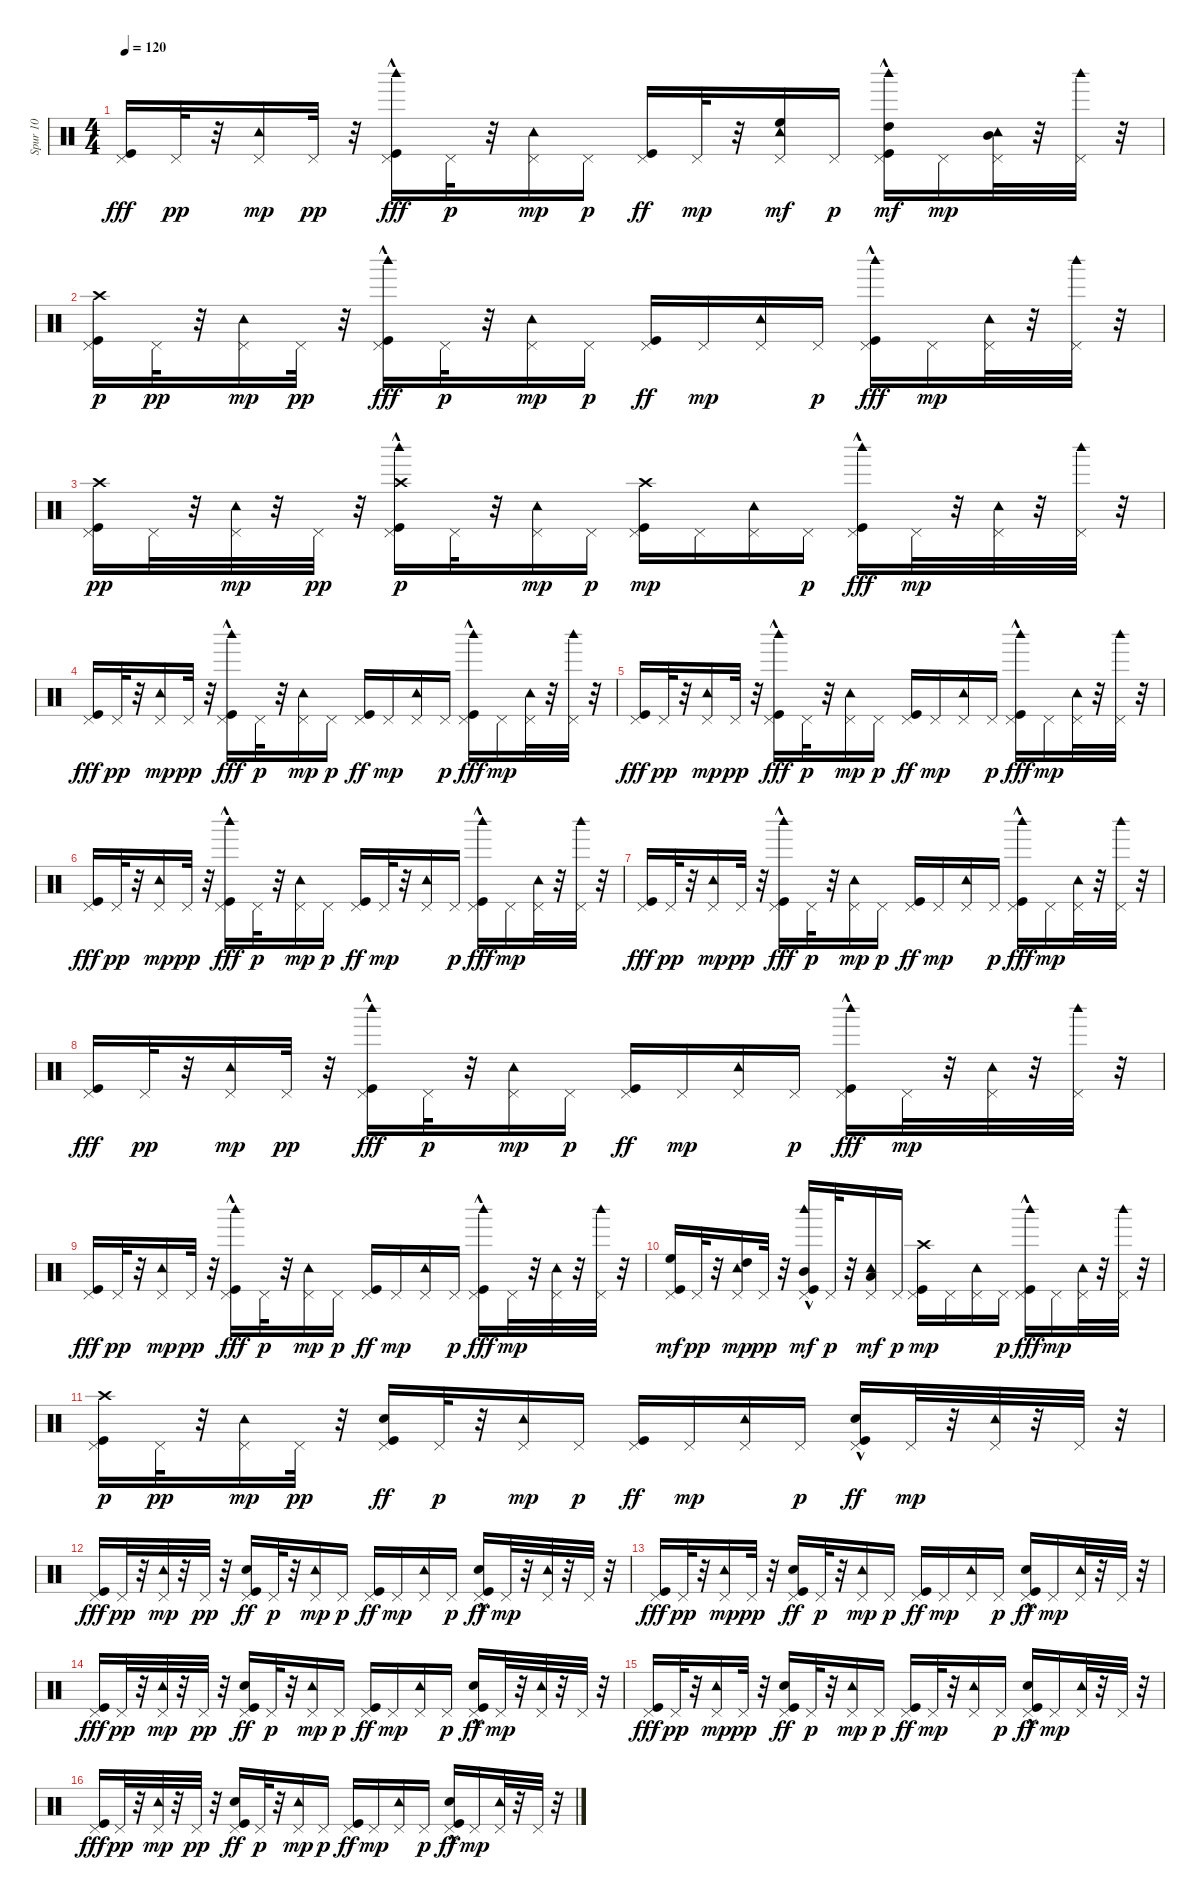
\track ("Spur 10" "Spur 10") {instrument percussion}
\staff {score}
\articulation defaults
\ts (4 4)
\tempo 120
\clef neutral
\ks c
("Pedal Hi-Hat (hit)" "Kick (hit)").16{dy fff} "Pedal Hi-Hat (hit)".32{dy pp} r.32 ("Pedal Hi-Hat (hit)" "Tambourine (hit)").16{dy mp} "Pedal Hi-Hat (hit)".32{dy pp} r.32 ("Kick (hit)" "Pedal Hi-Hat (hit)" "Woodblock high (hit)"{hac}).16{dy fff} "Pedal Hi-Hat (hit)".32{dy p} r.32 ("Pedal Hi-Hat (hit)" "Tambourine (hit)").16{dy mp} "Pedal Hi-Hat (hit)".16{dy p} ("Kick (hit)" "Pedal Hi-Hat (hit)").16{dy ff} "Pedal Hi-Hat (hit)".32{dy mp} r.32 ("Pedal Hi-Hat (hit)" "Tambourine (hit)" "High Floor Tom (hit)").16{dy mf} "Pedal Hi-Hat (hit)".16{dy p} ("Kick (hit)"{hac} "Pedal Hi-Hat (hit)" "Woodblock high (hit)" "High Tom (hit)").16{dy mf} "Pedal Hi-Hat (hit)".16{dy mp} ("Pedal Hi-Hat (hit)" "Tambourine (hit)" "Mid Tom (hit)").32 r.32 ("Pedal Hi-Hat (hit)" "Woodblock high (hit)").32 r.32 |
("Pedal Hi-Hat (hit)" "Kick (hit)" "Crash high (hit)").16{dy p} "Pedal Hi-Hat (hit)".32{dy pp} r.32 ("Pedal Hi-Hat (hit)" "Tambourine (hit)").16{dy mp} "Pedal Hi-Hat (hit)".32{dy pp} r.32 ("Kick (hit)" "Pedal Hi-Hat (hit)" "Woodblock high (hit)"{hac}).16{dy fff} "Pedal Hi-Hat (hit)".32{dy p} r.32 ("Pedal Hi-Hat (hit)" "Tambourine (hit)").16{dy mp} "Pedal Hi-Hat (hit)".16{dy p} ("Kick (hit)" "Pedal Hi-Hat (hit)").16{dy ff} "Pedal Hi-Hat (hit)".16{dy mp} ("Pedal Hi-Hat (hit)" "Tambourine (hit)").16 "Pedal Hi-Hat (hit)".16{dy p} ("Kick (hit)"{hac} "Pedal Hi-Hat (hit)" "Woodblock high (hit)").16{dy fff} "Pedal Hi-Hat (hit)".16{dy mp} ("Pedal Hi-Hat (hit)" "Tambourine (hit)").32 r.32 ("Pedal Hi-Hat (hit)" "Woodblock high (hit)").32 r.32 |
("Pedal Hi-Hat (hit)" "Kick (hit)" "Crash high (hit)").16{dy pp} "Pedal Hi-Hat (hit)".32 r.32 ("Pedal Hi-Hat (hit)" "Tambourine (hit)").32{dy mp} r.32 "Pedal Hi-Hat (hit)".32{dy pp} r.32 ("Kick (hit)" "Pedal Hi-Hat (hit)" "Woodblock high (hit)"{hac} "Crash high (hit)").16{dy p} "Pedal Hi-Hat (hit)".32 r.32 ("Pedal Hi-Hat (hit)" "Tambourine (hit)").16{dy mp} "Pedal Hi-Hat (hit)".16{dy p} ("Kick (hit)" "Pedal Hi-Hat (hit)" "Crash high (hit)").16{dy mp} "Pedal Hi-Hat (hit)".16 ("Pedal Hi-Hat (hit)" "Tambourine (hit)").16 "Pedal Hi-Hat (hit)".16{dy p} ("Kick (hit)"{hac} "Pedal Hi-Hat (hit)" "Woodblock high (hit)").16{dy fff} "Pedal Hi-Hat (hit)".32{dy mp} r.32 ("Pedal Hi-Hat (hit)" "Tambourine (hit)").32 r.32 ("Pedal Hi-Hat (hit)" "Woodblock high (hit)").32 r.32 |
("Pedal Hi-Hat (hit)" "Kick (hit)").16{dy fff} "Pedal Hi-Hat (hit)".32{dy pp} r.32 ("Pedal Hi-Hat (hit)" "Tambourine (hit)").16{dy mp} "Pedal Hi-Hat (hit)".32{dy pp} r.32 ("Kick (hit)" "Pedal Hi-Hat (hit)" "Woodblock high (hit)"{hac}).16{dy fff} "Pedal Hi-Hat (hit)".32{dy p} r.32 ("Pedal Hi-Hat (hit)" "Tambourine (hit)").16{dy mp} "Pedal Hi-Hat (hit)".16{dy p} ("Kick (hit)" "Pedal Hi-Hat (hit)").16{dy ff} "Pedal Hi-Hat (hit)".16{dy mp} ("Pedal Hi-Hat (hit)" "Tambourine (hit)").16 "Pedal Hi-Hat (hit)".16{dy p} ("Kick (hit)"{hac} "Pedal Hi-Hat (hit)" "Woodblock high (hit)").16{dy fff} "Pedal Hi-Hat (hit)".16{dy mp} ("Pedal Hi-Hat (hit)" "Tambourine (hit)").32 r.32 ("Pedal Hi-Hat (hit)" "Woodblock high (hit)").32 r.32 |
("Pedal Hi-Hat (hit)" "Kick (hit)").16{dy fff} "Pedal Hi-Hat (hit)".32{dy pp} r.32 ("Pedal Hi-Hat (hit)" "Tambourine (hit)").16{dy mp} "Pedal Hi-Hat (hit)".32{dy pp} r.32 ("Kick (hit)" "Pedal Hi-Hat (hit)" "Woodblock high (hit)"{hac}).16{dy fff} "Pedal Hi-Hat (hit)".32{dy p} r.32 ("Pedal Hi-Hat (hit)" "Tambourine (hit)").16{dy mp} "Pedal Hi-Hat (hit)".16{dy p} ("Kick (hit)" "Pedal Hi-Hat (hit)").16{dy ff} "Pedal Hi-Hat (hit)".16{dy mp} ("Pedal Hi-Hat (hit)" "Tambourine (hit)").16 "Pedal Hi-Hat (hit)".16{dy p} ("Kick (hit)"{hac} "Pedal Hi-Hat (hit)" "Woodblock high (hit)").16{dy fff} "Pedal Hi-Hat (hit)".16{dy mp} ("Pedal Hi-Hat (hit)" "Tambourine (hit)").32 r.32 ("Pedal Hi-Hat (hit)" "Woodblock high (hit)").32 r.32 |
("Pedal Hi-Hat (hit)" "Kick (hit)").16{dy fff} "Pedal Hi-Hat (hit)".32{dy pp} r.32 ("Pedal Hi-Hat (hit)" "Tambourine (hit)").16{dy mp} "Pedal Hi-Hat (hit)".32{dy pp} r.32 ("Kick (hit)" "Pedal Hi-Hat (hit)" "Woodblock high (hit)"{hac}).16{dy fff} "Pedal Hi-Hat (hit)".32{dy p} r.32 ("Pedal Hi-Hat (hit)" "Tambourine (hit)").16{dy mp} "Pedal Hi-Hat (hit)".16{dy p} ("Kick (hit)" "Pedal Hi-Hat (hit)").16{dy ff} "Pedal Hi-Hat (hit)".32{dy mp} r.32 ("Pedal Hi-Hat (hit)" "Tambourine (hit)").16 "Pedal Hi-Hat (hit)".16{dy p} ("Kick (hit)"{hac} "Pedal Hi-Hat (hit)" "Woodblock high (hit)").16{dy fff} "Pedal Hi-Hat (hit)".16{dy mp} ("Pedal Hi-Hat (hit)" "Tambourine (hit)").32 r.32 ("Pedal Hi-Hat (hit)" "Woodblock high (hit)").32 r.32 |
("Pedal Hi-Hat (hit)" "Kick (hit)").16{dy fff} "Pedal Hi-Hat (hit)".32{dy pp} r.32 ("Pedal Hi-Hat (hit)" "Tambourine (hit)").16{dy mp} "Pedal Hi-Hat (hit)".32{dy pp} r.32 ("Kick (hit)" "Pedal Hi-Hat (hit)" "Woodblock high (hit)"{hac}).16{dy fff} "Pedal Hi-Hat (hit)".32{dy p} r.32 ("Pedal Hi-Hat (hit)" "Tambourine (hit)").16{dy mp} "Pedal Hi-Hat (hit)".16{dy p} ("Kick (hit)" "Pedal Hi-Hat (hit)").16{dy ff} "Pedal Hi-Hat (hit)".16{dy mp} ("Pedal Hi-Hat (hit)" "Tambourine (hit)").16 "Pedal Hi-Hat (hit)".16{dy p} ("Kick (hit)"{hac} "Pedal Hi-Hat (hit)" "Woodblock high (hit)").16{dy fff} "Pedal Hi-Hat (hit)".16{dy mp} ("Pedal Hi-Hat (hit)" "Tambourine (hit)").32 r.32 ("Pedal Hi-Hat (hit)" "Woodblock high (hit)").32 r.32 |
("Pedal Hi-Hat (hit)" "Kick (hit)").16{dy fff} "Pedal Hi-Hat (hit)".32{dy pp} r.32 ("Pedal Hi-Hat (hit)" "Tambourine (hit)").16{dy mp} "Pedal Hi-Hat (hit)".32{dy pp} r.32 ("Kick (hit)" "Pedal Hi-Hat (hit)" "Woodblock high (hit)"{hac}).16{dy fff} "Pedal Hi-Hat (hit)".32{dy p} r.32 ("Pedal Hi-Hat (hit)" "Tambourine (hit)").16{dy mp} "Pedal Hi-Hat (hit)".16{dy p} ("Kick (hit)" "Pedal Hi-Hat (hit)").16{dy ff} "Pedal Hi-Hat (hit)".16{dy mp} ("Pedal Hi-Hat (hit)" "Tambourine (hit)").16 "Pedal Hi-Hat (hit)".16{dy p} ("Kick (hit)"{hac} "Pedal Hi-Hat (hit)" "Woodblock high (hit)").16{dy fff} "Pedal Hi-Hat (hit)".32{dy mp} r.32 ("Pedal Hi-Hat (hit)" "Tambourine (hit)").32 r.32 ("Pedal Hi-Hat (hit)" "Woodblock high (hit)").32 r.32 |
("Pedal Hi-Hat (hit)" "Kick (hit)").16{dy fff} "Pedal Hi-Hat (hit)".32{dy pp} r.32 ("Pedal Hi-Hat (hit)" "Tambourine (hit)").16{dy mp} "Pedal Hi-Hat (hit)".32{dy pp} r.32 ("Kick (hit)" "Pedal Hi-Hat (hit)" "Woodblock high (hit)"{hac}).16{dy fff} "Pedal Hi-Hat (hit)".32{dy p} r.32 ("Pedal Hi-Hat (hit)" "Tambourine (hit)").16{dy mp} "Pedal Hi-Hat (hit)".16{dy p} ("Kick (hit)" "Pedal Hi-Hat (hit)").16{dy ff} "Pedal Hi-Hat (hit)".16{dy mp} ("Pedal Hi-Hat (hit)" "Tambourine (hit)").16 "Pedal Hi-Hat (hit)".16{dy p} ("Kick (hit)"{hac} "Pedal Hi-Hat (hit)" "Woodblock high (hit)").16{dy fff} "Pedal Hi-Hat (hit)".32{dy mp} r.32 ("Pedal Hi-Hat (hit)" "Tambourine (hit)").32 r.32 ("Pedal Hi-Hat (hit)" "Woodblock high (hit)").32 r.32 |
("Pedal Hi-Hat (hit)" "Kick (hit)" "High Floor Tom (hit)").16{dy mf} "Pedal Hi-Hat (hit)".32{dy pp} r.32 ("Pedal Hi-Hat (hit)" "Tambourine (hit)" "High Tom (hit)").16{dy mp} "Pedal Hi-Hat (hit)".32{dy pp} r.32 ("Kick (hit)" "Pedal Hi-Hat (hit)" "Woodblock high (hit)"{hac} "Mid Tom (hit)").16{dy mf} "Pedal Hi-Hat (hit)".32{dy p} r.32 ("Pedal Hi-Hat (hit)" "Tambourine (hit)" "Low Tom (hit)").16{dy mf} "Pedal Hi-Hat (hit)".16{dy p} ("Kick (hit)" "Pedal Hi-Hat (hit)" "Crash high (hit)").16{dy mp} "Pedal Hi-Hat (hit)".16 ("Pedal Hi-Hat (hit)" "Tambourine (hit)").16 "Pedal Hi-Hat (hit)".16{dy p} ("Kick (hit)"{hac} "Pedal Hi-Hat (hit)" "Woodblock high (hit)").16{dy fff} "Pedal Hi-Hat (hit)".16{dy mp} ("Pedal Hi-Hat (hit)" "Tambourine (hit)").32 r.32 ("Pedal Hi-Hat (hit)" "Woodblock high (hit)").32 r.32 |
("Pedal Hi-Hat (hit)" "Kick (hit)" "Crash high (hit)").16{dy p} "Pedal Hi-Hat (hit)".32{dy pp} r.32 ("Pedal Hi-Hat (hit)" "Tambourine (hit)").16{dy mp} "Pedal Hi-Hat (hit)".32{dy pp} r.32 ("Kick (hit)" "Pedal Hi-Hat (hit)" "Snare (hit) 2").16{dy ff} "Pedal Hi-Hat (hit)".32{dy p} r.32 ("Pedal Hi-Hat (hit)" "Tambourine (hit)").16{dy mp} "Pedal Hi-Hat (hit)".16{dy p} ("Kick (hit)" "Pedal Hi-Hat (hit)").16{dy ff} "Pedal Hi-Hat (hit)".16{dy mp} ("Pedal Hi-Hat (hit)" "Tambourine (hit)").16 "Pedal Hi-Hat (hit)".16{dy p} ("Kick (hit)"{hac} "Pedal Hi-Hat (hit)" "Snare (hit) 2"{hac}).16{dy ff} "Pedal Hi-Hat (hit)".32{dy mp} r.32 ("Pedal Hi-Hat (hit)" "Tambourine (hit)").32 r.32 "Pedal Hi-Hat (hit)".32 r.32 |
("Pedal Hi-Hat (hit)" "Kick (hit)").16{dy fff} "Pedal Hi-Hat (hit)".32{dy pp} r.32 ("Pedal Hi-Hat (hit)" "Tambourine (hit)").32{dy mp} r.32 "Pedal Hi-Hat (hit)".32{dy pp} r.32 ("Kick (hit)" "Pedal Hi-Hat (hit)" "Snare (hit) 2").16{dy ff} "Pedal Hi-Hat (hit)".32{dy p} r.32 ("Pedal Hi-Hat (hit)" "Tambourine (hit)").16{dy mp} "Pedal Hi-Hat (hit)".16{dy p} ("Kick (hit)" "Pedal Hi-Hat (hit)").16{dy ff} "Pedal Hi-Hat (hit)".16{dy mp} ("Pedal Hi-Hat (hit)" "Tambourine (hit)").16 "Pedal Hi-Hat (hit)".16{dy p} ("Kick (hit)"{hac} "Pedal Hi-Hat (hit)" "Snare (hit) 2"{hac}).16{dy ff} "Pedal Hi-Hat (hit)".32{dy mp} r.32 ("Pedal Hi-Hat (hit)" "Tambourine (hit)").32 r.32 "Pedal Hi-Hat (hit)".32 r.32 |
("Pedal Hi-Hat (hit)" "Kick (hit)").16{dy fff} "Pedal Hi-Hat (hit)".32{dy pp} r.32 ("Pedal Hi-Hat (hit)" "Tambourine (hit)").16{dy mp} "Pedal Hi-Hat (hit)".32{dy pp} r.32 ("Kick (hit)" "Pedal Hi-Hat (hit)" "Snare (hit) 2").16{dy ff} "Pedal Hi-Hat (hit)".32{dy p} r.32 ("Pedal Hi-Hat (hit)" "Tambourine (hit)").16{dy mp} "Pedal Hi-Hat (hit)".16{dy p} ("Kick (hit)" "Pedal Hi-Hat (hit)").16{dy ff} "Pedal Hi-Hat (hit)".16{dy mp} ("Pedal Hi-Hat (hit)" "Tambourine (hit)").16 "Pedal Hi-Hat (hit)".16{dy p} ("Kick (hit)"{hac} "Pedal Hi-Hat (hit)" "Snare (hit) 2"{hac}).16{dy ff} "Pedal Hi-Hat (hit)".16{dy mp} ("Pedal Hi-Hat (hit)" "Tambourine (hit)").32 r.32 "Pedal Hi-Hat (hit)".32 r.32 |
("Pedal Hi-Hat (hit)" "Kick (hit)").16{dy fff} "Pedal Hi-Hat (hit)".32{dy pp} r.32 ("Pedal Hi-Hat (hit)" "Tambourine (hit)").32{dy mp} r.32 "Pedal Hi-Hat (hit)".32{dy pp} r.32 ("Kick (hit)" "Pedal Hi-Hat (hit)" "Snare (hit) 2").16{dy ff} "Pedal Hi-Hat (hit)".32{dy p} r.32 ("Pedal Hi-Hat (hit)" "Tambourine (hit)").16{dy mp} "Pedal Hi-Hat (hit)".16{dy p} ("Kick (hit)" "Pedal Hi-Hat (hit)").16{dy ff} "Pedal Hi-Hat (hit)".16{dy mp} ("Pedal Hi-Hat (hit)" "Tambourine (hit)").16 "Pedal Hi-Hat (hit)".16{dy p} ("Kick (hit)"{hac} "Pedal Hi-Hat (hit)" "Snare (hit) 2"{hac}).16{dy ff} "Pedal Hi-Hat (hit)".32{dy mp} r.32 ("Pedal Hi-Hat (hit)" "Tambourine (hit)").32 r.32 "Pedal Hi-Hat (hit)".32 r.32 |
("Pedal Hi-Hat (hit)" "Kick (hit)").16{dy fff} "Pedal Hi-Hat (hit)".32{dy pp} r.32 ("Pedal Hi-Hat (hit)" "Tambourine (hit)").16{dy mp} "Pedal Hi-Hat (hit)".32{dy pp} r.32 ("Kick (hit)" "Pedal Hi-Hat (hit)" "Snare (hit) 2").16{dy ff} "Pedal Hi-Hat (hit)".32{dy p} r.32 ("Pedal Hi-Hat (hit)" "Tambourine (hit)").16{dy mp} "Pedal Hi-Hat (hit)".16{dy p} ("Kick (hit)" "Pedal Hi-Hat (hit)").16{dy ff} "Pedal Hi-Hat (hit)".32{dy mp} r.32 ("Pedal Hi-Hat (hit)" "Tambourine (hit)").16 "Pedal Hi-Hat (hit)".16{dy p} ("Kick (hit)"{hac} "Pedal Hi-Hat (hit)" "Snare (hit) 2"{hac}).16{dy ff} "Pedal Hi-Hat (hit)".16{dy mp} ("Pedal Hi-Hat (hit)" "Tambourine (hit)").32 r.32 "Pedal Hi-Hat (hit)".32 r.32 |
("Pedal Hi-Hat (hit)" "Kick (hit)").16{dy fff} "Pedal Hi-Hat (hit)".32{dy pp} r.32 ("Pedal Hi-Hat (hit)" "Tambourine (hit)").32{dy mp} r.32 "Pedal Hi-Hat (hit)".32{dy pp} r.32 ("Kick (hit)" "Pedal Hi-Hat (hit)" "Snare (hit) 2").16{dy ff} "Pedal Hi-Hat (hit)".32{dy p} r.32 ("Pedal Hi-Hat (hit)" "Tambourine (hit)").16{dy mp} "Pedal Hi-Hat (hit)".16{dy p} ("Kick (hit)" "Pedal Hi-Hat (hit)").16{dy ff} "Pedal Hi-Hat (hit)".16{dy mp} ("Pedal Hi-Hat (hit)" "Tambourine (hit)").16 "Pedal Hi-Hat (hit)".16{dy p} ("Kick (hit)"{hac} "Pedal Hi-Hat (hit)" "Snare (hit) 2"{hac}).16{dy ff} "Pedal Hi-Hat (hit)".16{dy mp} ("Pedal Hi-Hat (hit)" "Tambourine (hit)").32 r.32 "Pedal Hi-Hat (hit)".32 r.32
